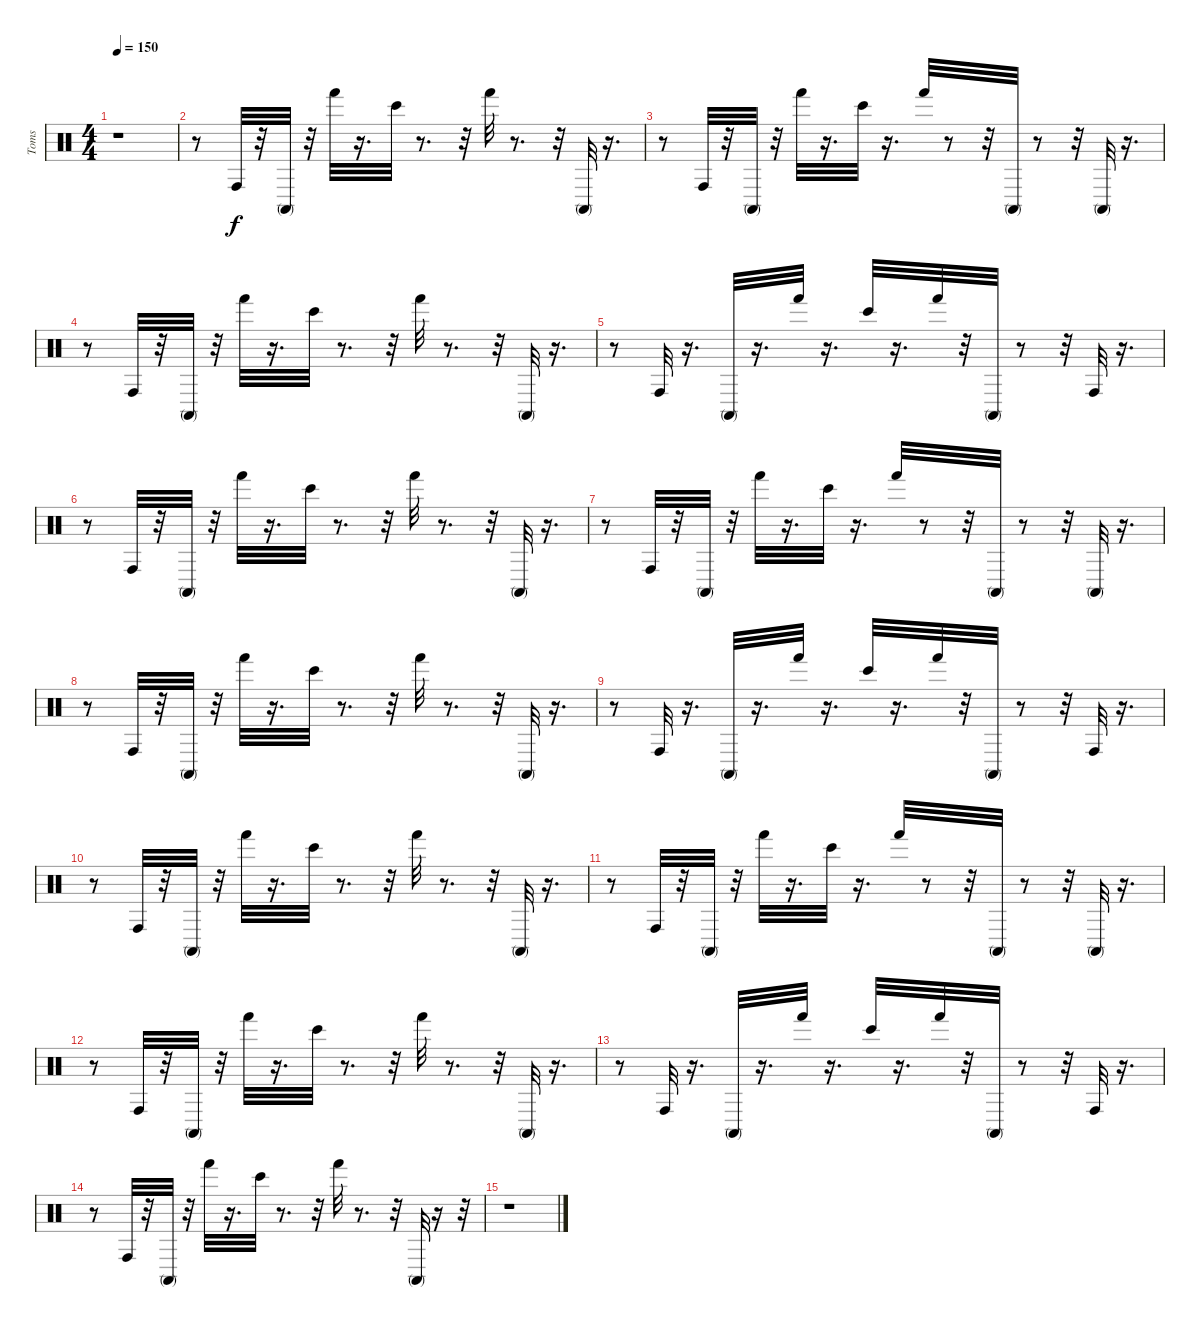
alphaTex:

\track ("Toms" "Toms") {instrument percussion}
\staff {score}
\articulation defaults
\ts (4 4)
\tempo 150
\clef neutral
\ks c
r.1{dy f} |
r.8 "Conga high (hit)".32 r.32 "Conga high (mute)".32 r.32 "Hand (hit)".32 r.16{d} "Bongo High (hit)".32 r.8{d} r.32 "Hand (hit)".32 r.8{d} r.32 "Conga high (mute)".32 r.16{d} |
r.8 "Conga high (hit)".32 r.32 "Conga high (mute)".32 r.32 "Hand (hit)".32 r.16{d} "Bongo High (hit)".32 r.16{d} "Hand (hit)".32 r.8 r.32 "Conga high (mute)".32 r.8 r.32 "Conga high (mute)".32 r.16{d} |
r.8 "Conga high (hit)".32 r.32 "Conga high (mute)".32 r.32 "Hand (hit)".32 r.16{d} "Bongo High (hit)".32 r.8{d} r.32 "Hand (hit)".32 r.8{d} r.32 "Conga high (mute)".32 r.16{d} |
r.8 "Conga high (hit)".32 r.16{d} "Conga high (mute)".32 r.16{d} "Hand (hit)".32 r.16{d} "Bongo High (hit)".32 r.16{d} "Hand (hit)".32 r.32 "Conga high (mute)".32 r.8 r.32 "Conga high (hit)".32 r.16{d} |
r.8 "Conga high (hit)".32 r.32 "Conga high (mute)".32 r.32 "Hand (hit)".32 r.16{d} "Bongo High (hit)".32 r.8{d} r.32 "Hand (hit)".32 r.8{d} r.32 "Conga high (mute)".32 r.16{d} |
r.8 "Conga high (hit)".32 r.32 "Conga high (mute)".32 r.32 "Hand (hit)".32 r.16{d} "Bongo High (hit)".32 r.16{d} "Hand (hit)".32 r.8 r.32 "Conga high (mute)".32 r.8 r.32 "Conga high (mute)".32 r.16{d} |
r.8 "Conga high (hit)".32 r.32 "Conga high (mute)".32 r.32 "Hand (hit)".32 r.16{d} "Bongo High (hit)".32 r.8{d} r.32 "Hand (hit)".32 r.8{d} r.32 "Conga high (mute)".32 r.16{d} |
r.8 "Conga high (hit)".32 r.16{d} "Conga high (mute)".32 r.16{d} "Hand (hit)".32 r.16{d} "Bongo High (hit)".32 r.16{d} "Hand (hit)".32 r.32 "Conga high (mute)".32 r.8 r.32 "Conga high (hit)".32 r.16{d} |
r.8 "Conga high (hit)".32 r.32 "Conga high (mute)".32 r.32 "Hand (hit)".32 r.16{d} "Bongo High (hit)".32 r.8{d} r.32 "Hand (hit)".32 r.8{d} r.32 "Conga high (mute)".32 r.16{d} |
r.8 "Conga high (hit)".32 r.32 "Conga high (mute)".32 r.32 "Hand (hit)".32 r.16{d} "Bongo High (hit)".32 r.16{d} "Hand (hit)".32 r.8 r.32 "Conga high (mute)".32 r.8 r.32 "Conga high (mute)".32 r.16{d} |
r.8 "Conga high (hit)".32 r.32 "Conga high (mute)".32 r.32 "Hand (hit)".32 r.16{d} "Bongo High (hit)".32 r.8{d} r.32 "Hand (hit)".32 r.8{d} r.32 "Conga high (mute)".32 r.16{d} |
r.8 "Conga high (hit)".32 r.16{d} "Conga high (mute)".32 r.16{d} "Hand (hit)".32 r.16{d} "Bongo High (hit)".32 r.16{d} "Hand (hit)".32 r.32 "Conga high (mute)".32 r.8 r.32 "Conga high (hit)".32 r.16{d} |
r.8 "Conga high (hit)".32 r.32 "Conga high (mute)".32 r.32 "Hand (hit)".32 r.16{d} "Bongo High (hit)".32 r.8{d} r.32 "Hand (hit)".32 r.8{d} r.32 "Conga high (mute)".32 r.16 r.32 |
r.1
